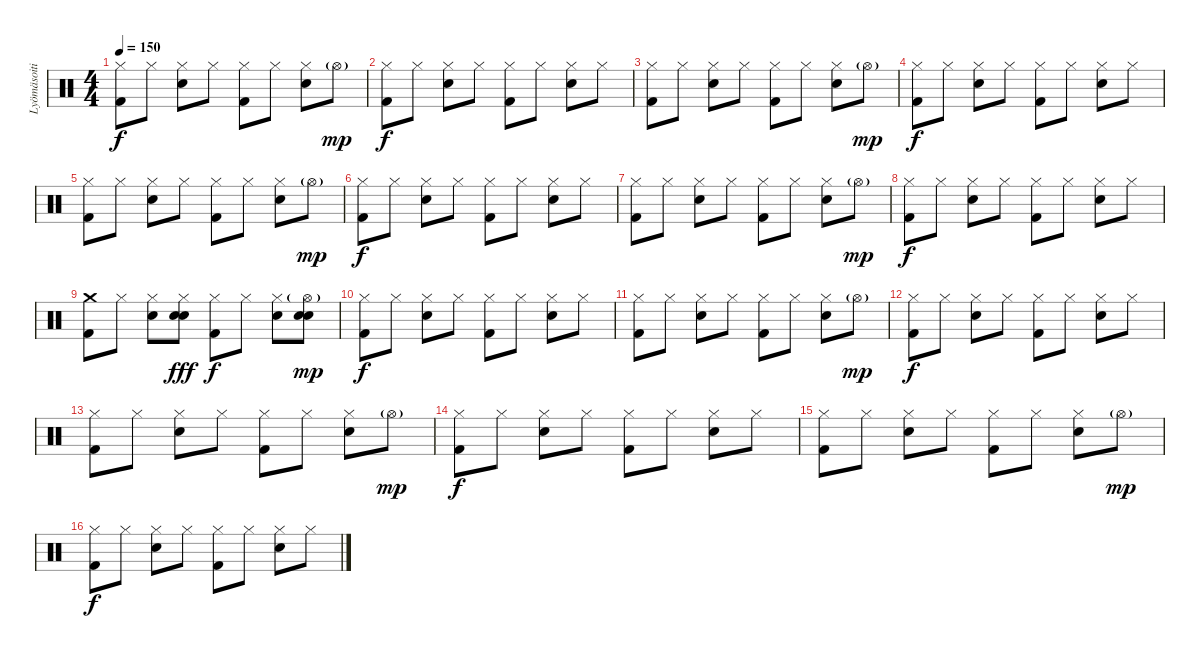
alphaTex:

\track ("Lyömäsoitin" "Lyömäsoiti") {instrument percussion}
\staff {score}
\articulation defaults
\ts (4 4)
\tempo 150
\clef neutral
\ks c
("Kick (hit) 2" "Hi-Hat (closed)").8{dy f} "Hi-Hat (closed)".8 ("Snare (hit) 2" "Hi-Hat (closed)").8 "Hi-Hat (closed)".8 ("Kick (hit) 2" "Hi-Hat (closed)").8 "Hi-Hat (closed)".8 ("Snare (hit) 2" "Hi-Hat (closed)").8 "Hi-Hat (open)"{g}.8{dy mp} |
("Kick (hit) 2" "Hi-Hat (closed)").8{dy f} "Hi-Hat (closed)".8 ("Snare (hit) 2" "Hi-Hat (closed)").8 "Hi-Hat (closed)".8 ("Kick (hit) 2" "Hi-Hat (closed)").8 "Hi-Hat (closed)".8 ("Snare (hit) 2" "Hi-Hat (closed)").8 "Hi-Hat (closed)".8 |
("Kick (hit) 2" "Hi-Hat (closed)").8 "Hi-Hat (closed)".8 ("Snare (hit) 2" "Hi-Hat (closed)").8 "Hi-Hat (closed)".8 ("Kick (hit) 2" "Hi-Hat (closed)").8 "Hi-Hat (closed)".8 ("Snare (hit) 2" "Hi-Hat (closed)").8 "Hi-Hat (open)"{g}.8{dy mp} |
("Kick (hit) 2" "Hi-Hat (closed)").8{dy f} "Hi-Hat (closed)".8 ("Snare (hit) 2" "Hi-Hat (closed)").8 "Hi-Hat (closed)".8 ("Kick (hit) 2" "Hi-Hat (closed)").8 "Hi-Hat (closed)".8 ("Snare (hit) 2" "Hi-Hat (closed)").8 "Hi-Hat (closed)".8 |
("Kick (hit) 2" "Hi-Hat (closed)").8 "Hi-Hat (closed)".8 ("Snare (hit) 2" "Hi-Hat (closed)").8 "Hi-Hat (closed)".8 ("Kick (hit) 2" "Hi-Hat (closed)").8 "Hi-Hat (closed)".8 ("Snare (hit) 2" "Hi-Hat (closed)").8 "Hi-Hat (open)"{g}.8{dy mp} |
("Kick (hit) 2" "Hi-Hat (closed)").8{dy f} "Hi-Hat (closed)".8 ("Snare (hit) 2" "Hi-Hat (closed)").8 "Hi-Hat (closed)".8 ("Kick (hit) 2" "Hi-Hat (closed)").8 "Hi-Hat (closed)".8 ("Snare (hit) 2" "Hi-Hat (closed)").8 "Hi-Hat (closed)".8 |
("Kick (hit) 2" "Hi-Hat (closed)").8 "Hi-Hat (closed)".8 ("Snare (hit) 2" "Hi-Hat (closed)").8 "Hi-Hat (closed)".8 ("Kick (hit) 2" "Hi-Hat (closed)").8 "Hi-Hat (closed)".8 ("Snare (hit) 2" "Hi-Hat (closed)").8 "Hi-Hat (open)"{g}.8{dy mp} |
("Kick (hit) 2" "Hi-Hat (closed)").8{dy f} "Hi-Hat (closed)".8 ("Snare (hit) 2" "Hi-Hat (closed)").8 "Hi-Hat (closed)".8 ("Kick (hit) 2" "Hi-Hat (closed)").8 "Hi-Hat (closed)".8 ("Snare (hit) 2" "Hi-Hat (closed)").8 "Hi-Hat (closed)".8 |
("Kick (hit) 2" "Crash medium (hit)").8 "Hi-Hat (closed)".8 ("Snare (hit) 2" "Hi-Hat (closed)").8 ("Electric Snare (hit)" "Hand Clap (hit)" "Hi-Hat (closed)").8{dy fff} ("Kick (hit) 2" "Hi-Hat (closed)").8{dy f} "Hi-Hat (closed)".8 ("Snare (hit) 2" "Hi-Hat (closed)").8 ("Electric Snare (hit)" "Hand Clap (hit)" "Hi-Hat (open)"{g}).8{dy mp} |
("Kick (hit) 2" "Hi-Hat (closed)").8{dy f} "Hi-Hat (closed)".8 ("Snare (hit) 2" "Hi-Hat (closed)").8 "Hi-Hat (closed)".8 ("Kick (hit) 2" "Hi-Hat (closed)").8 "Hi-Hat (closed)".8 ("Snare (hit) 2" "Hi-Hat (closed)").8 "Hi-Hat (closed)".8 |
("Kick (hit) 2" "Hi-Hat (closed)").8 "Hi-Hat (closed)".8 ("Snare (hit) 2" "Hi-Hat (closed)").8 "Hi-Hat (closed)".8 ("Kick (hit) 2" "Hi-Hat (closed)").8 "Hi-Hat (closed)".8 ("Snare (hit) 2" "Hi-Hat (closed)").8 "Hi-Hat (open)"{g}.8{dy mp} |
("Kick (hit) 2" "Hi-Hat (closed)").8{dy f} "Hi-Hat (closed)".8 ("Snare (hit) 2" "Hi-Hat (closed)").8 "Hi-Hat (closed)".8 ("Kick (hit) 2" "Hi-Hat (closed)").8 "Hi-Hat (closed)".8 ("Snare (hit) 2" "Hi-Hat (closed)").8 "Hi-Hat (closed)".8 |
("Kick (hit) 2" "Hi-Hat (closed)").8 "Hi-Hat (closed)".8 ("Snare (hit) 2" "Hi-Hat (closed)").8 "Hi-Hat (closed)".8 ("Kick (hit) 2" "Hi-Hat (closed)").8 "Hi-Hat (closed)".8 ("Snare (hit) 2" "Hi-Hat (closed)").8 "Hi-Hat (open)"{g}.8{dy mp} |
("Kick (hit) 2" "Hi-Hat (closed)").8{dy f} "Hi-Hat (closed)".8 ("Snare (hit) 2" "Hi-Hat (closed)").8 "Hi-Hat (closed)".8 ("Kick (hit) 2" "Hi-Hat (closed)").8 "Hi-Hat (closed)".8 ("Snare (hit) 2" "Hi-Hat (closed)").8 "Hi-Hat (closed)".8 |
("Kick (hit) 2" "Hi-Hat (closed)").8 "Hi-Hat (closed)".8 ("Snare (hit) 2" "Hi-Hat (closed)").8 "Hi-Hat (closed)".8 ("Kick (hit) 2" "Hi-Hat (closed)").8 "Hi-Hat (closed)".8 ("Snare (hit) 2" "Hi-Hat (closed)").8 "Hi-Hat (open)"{g}.8{dy mp} |
("Kick (hit) 2" "Hi-Hat (closed)").8{dy f} "Hi-Hat (closed)".8 ("Snare (hit) 2" "Hi-Hat (closed)").8 "Hi-Hat (closed)".8 ("Kick (hit) 2" "Hi-Hat (closed)").8 "Hi-Hat (closed)".8 ("Snare (hit) 2" "Hi-Hat (closed)").8 "Hi-Hat (closed)".8
